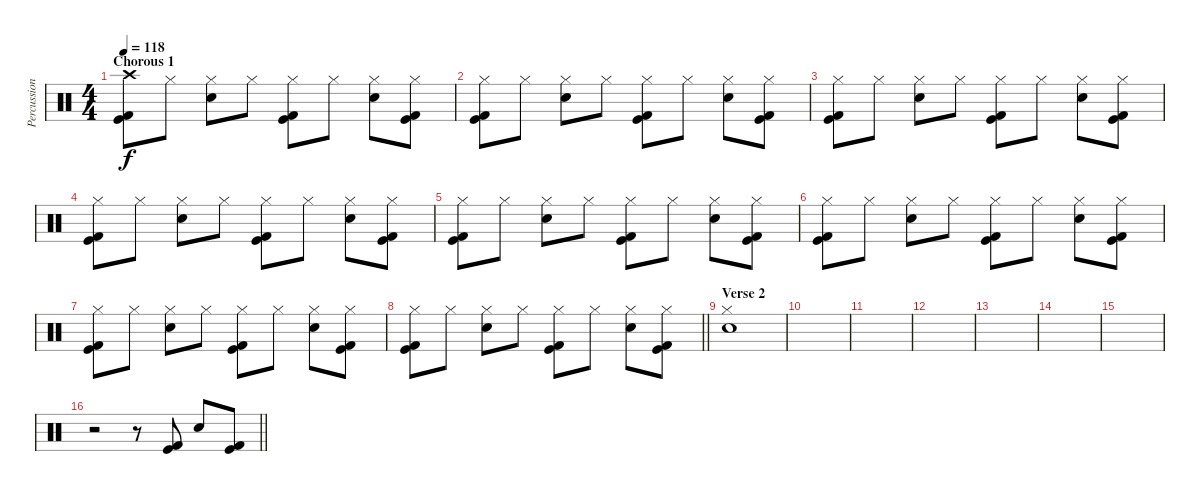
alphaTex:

\track ("Percussion" "Percussion") {instrument percussion}
\staff {score}
\articulation defaults
\ts (4 4)
\section ("" "Chorous 1")
\tempo 118
\clef neutral
\ks c
("Crash high (hit)" "Kick (hit)" "Kick (hit) 2").8{dy f} "Hi-Hat (closed)".8 ("Hi-Hat (closed)" "Electric Snare (hit)").8 "Hi-Hat (closed)".8 ("Hi-Hat (closed)" "Kick (hit)" "Kick (hit) 2").8 "Hi-Hat (closed)".8 ("Hi-Hat (closed)" "Electric Snare (hit)").8 ("Hi-Hat (closed)" "Kick (hit)" "Kick (hit) 2").8 |
("Hi-Hat (closed)" "Kick (hit)" "Kick (hit) 2").8 "Hi-Hat (closed)".8 ("Hi-Hat (closed)" "Electric Snare (hit)").8 "Hi-Hat (closed)".8 ("Hi-Hat (closed)" "Kick (hit)" "Kick (hit) 2").8 "Hi-Hat (closed)".8 ("Hi-Hat (closed)" "Electric Snare (hit)").8 ("Hi-Hat (closed)" "Kick (hit)" "Kick (hit) 2").8 |
("Hi-Hat (closed)" "Kick (hit)" "Kick (hit) 2").8 "Hi-Hat (closed)".8 ("Hi-Hat (closed)" "Electric Snare (hit)").8 "Hi-Hat (closed)".8 ("Hi-Hat (closed)" "Kick (hit)" "Kick (hit) 2").8 "Hi-Hat (closed)".8 ("Hi-Hat (closed)" "Electric Snare (hit)").8 ("Hi-Hat (closed)" "Kick (hit)" "Kick (hit) 2").8 |
("Hi-Hat (closed)" "Kick (hit)" "Kick (hit) 2").8 "Hi-Hat (closed)".8 ("Hi-Hat (closed)" "Electric Snare (hit)").8 "Hi-Hat (closed)".8 ("Hi-Hat (closed)" "Kick (hit)" "Kick (hit) 2").8 "Hi-Hat (closed)".8 ("Hi-Hat (closed)" "Electric Snare (hit)").8 ("Hi-Hat (closed)" "Kick (hit)" "Kick (hit) 2").8 |
("Hi-Hat (closed)" "Kick (hit)" "Kick (hit) 2").8 "Hi-Hat (closed)".8 ("Hi-Hat (closed)" "Electric Snare (hit)").8 "Hi-Hat (closed)".8 ("Hi-Hat (closed)" "Kick (hit)" "Kick (hit) 2").8 "Hi-Hat (closed)".8 ("Hi-Hat (closed)" "Electric Snare (hit)").8 ("Hi-Hat (closed)" "Kick (hit)" "Kick (hit) 2").8 |
("Hi-Hat (closed)" "Kick (hit)" "Kick (hit) 2").8 "Hi-Hat (closed)".8 ("Hi-Hat (closed)" "Electric Snare (hit)").8 "Hi-Hat (closed)".8 ("Hi-Hat (closed)" "Kick (hit)" "Kick (hit) 2").8 "Hi-Hat (closed)".8 ("Hi-Hat (closed)" "Electric Snare (hit)").8 ("Hi-Hat (closed)" "Kick (hit)" "Kick (hit) 2").8 |
("Hi-Hat (closed)" "Kick (hit)" "Kick (hit) 2").8 "Hi-Hat (closed)".8 ("Hi-Hat (closed)" "Electric Snare (hit)").8 "Hi-Hat (closed)".8 ("Hi-Hat (closed)" "Kick (hit)" "Kick (hit) 2").8 "Hi-Hat (closed)".8 ("Hi-Hat (closed)" "Electric Snare (hit)").8 ("Hi-Hat (closed)" "Kick (hit)" "Kick (hit) 2").8 |
\barLineRight lightlight
("Hi-Hat (closed)" "Kick (hit)" "Kick (hit) 2").8 "Hi-Hat (closed)".8 ("Hi-Hat (closed)" "Electric Snare (hit)").8 "Hi-Hat (closed)".8 ("Hi-Hat (closed)" "Kick (hit)" "Kick (hit) 2").8 "Hi-Hat (closed)".8 ("Hi-Hat (closed)" "Electric Snare (hit)").8 ("Hi-Hat (closed)" "Kick (hit)" "Kick (hit) 2").8 |
\section ("" "Verse 2")
("Hi-Hat (closed)" "Electric Snare (hit)").1 |
|
|
|
|
|
|
\barLineRight lightlight
r.2 r.8 ("Kick (hit)" "Kick (hit) 2").8 "Electric Snare (hit)".8 ("Kick (hit)" "Kick (hit) 2").8
